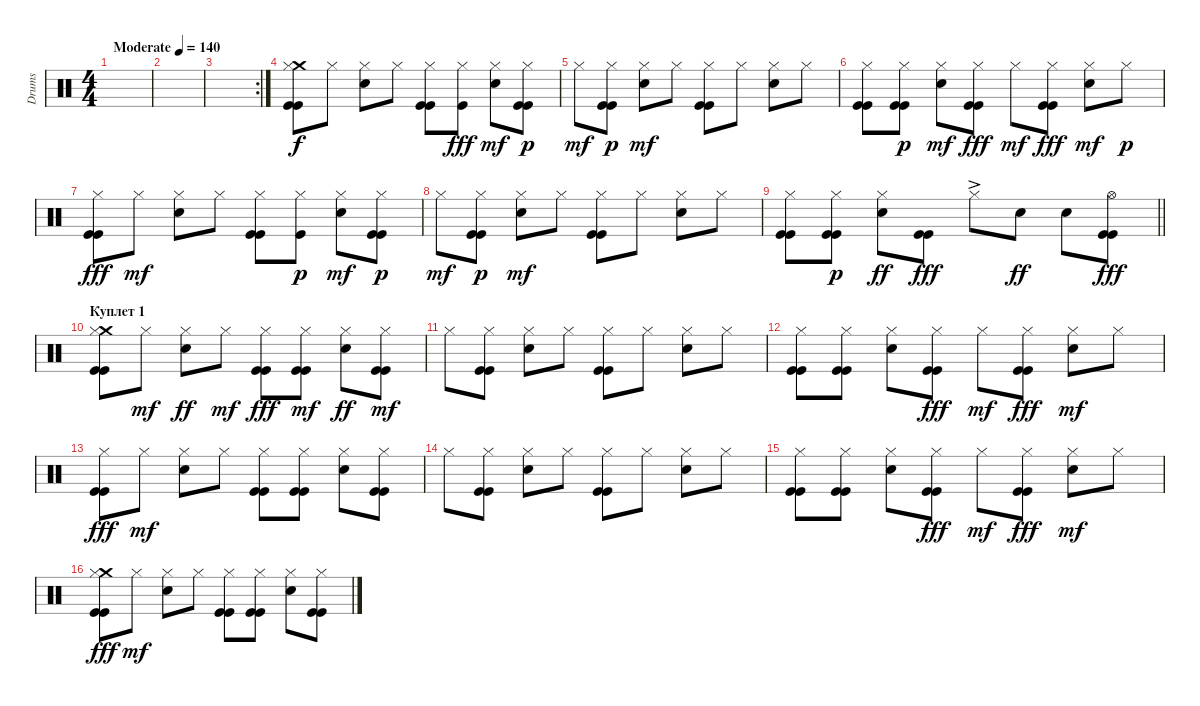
\track ("Drums" "Drums") {instrument percussion}
\staff {score}
\articulation defaults
\ts (4 4)
\tempo (140 "Moderate")
\clef neutral
\ks c
|
|
\rc 2
|
("Kick (hit)" "Crash medium (hit)" "Kick (hit)" "Hi-Hat (closed)").8 "Hi-Hat (closed)".8 ("Electric Snare (hit)" "Hi-Hat (closed)").8 "Hi-Hat (closed)".8 ("Kick (hit)" "Kick (hit)" "Hi-Hat (closed)").8 ("Hi-Hat (closed)" "Kick (hit)").8{dy fff} ("Electric Snare (hit)" "Hi-Hat (closed)").8{dy mf} ("Kick (hit)" "Kick (hit)" "Hi-Hat (closed)").8{dy p} |
"Hi-Hat (closed)".8{dy mf} ("Kick (hit)" "Kick (hit)" "Hi-Hat (closed)").8{dy p} ("Electric Snare (hit)" "Hi-Hat (closed)").8{dy mf} "Hi-Hat (closed)".8 ("Kick (hit)" "Kick (hit)" "Hi-Hat (closed)").8 "Hi-Hat (closed)".8 ("Electric Snare (hit)" "Hi-Hat (closed)").8 "Hi-Hat (closed)".8 |
("Kick (hit)" "Kick (hit)" "Hi-Hat (closed)").8 ("Kick (hit)" "Kick (hit)" "Hi-Hat (closed)").8{dy p} ("Electric Snare (hit)" "Hi-Hat (closed)").8{dy mf} ("Kick (hit)" "Hi-Hat (closed)" "Kick (hit)").8{dy fff} "Hi-Hat (closed)".8{dy mf} ("Kick (hit)" "Hi-Hat (closed)" "Kick (hit)").8{dy fff} ("Electric Snare (hit)" "Hi-Hat (closed)").8{dy mf} "Hi-Hat (closed)".8{dy p} |
("Kick (hit)" "Hi-Hat (closed)" "Kick (hit)").8{dy fff} "Hi-Hat (closed)".8{dy mf} ("Electric Snare (hit)" "Hi-Hat (closed)").8 "Hi-Hat (closed)".8 ("Kick (hit)" "Kick (hit)" "Hi-Hat (closed)").8 ("Kick (hit)" "Hi-Hat (closed)").8{dy p} ("Electric Snare (hit)" "Hi-Hat (closed)").8{dy mf} ("Kick (hit)" "Kick (hit)" "Hi-Hat (closed)").8{dy p} |
"Hi-Hat (closed)".8{dy mf} ("Kick (hit)" "Kick (hit)" "Hi-Hat (closed)").8{dy p} ("Electric Snare (hit)" "Hi-Hat (closed)").8{dy mf} "Hi-Hat (closed)".8 ("Kick (hit)" "Kick (hit)" "Hi-Hat (closed)").8 "Hi-Hat (closed)".8 ("Electric Snare (hit)" "Hi-Hat (closed)").8 "Hi-Hat (closed)".8 |
\barLineRight lightlight
("Kick (hit)" "Kick (hit)" "Hi-Hat (closed)").8 ("Kick (hit)" "Kick (hit)" "Hi-Hat (closed)").8{dy p} ("Electric Snare (hit)" "Hi-Hat (closed)").8{dy ff} ("Kick (hit)" "Kick (hit)").8{dy fff} "Hi-Hat (closed)"{ac}.8 "Electric Snare (hit)".8{dy ff} "Electric Snare (hit)".8 ("Kick (hit)" "Kick (hit)" "Hi-Hat (open)").8{dy fff} |
\section ("" "Куплет 1")
("Crash medium (hit)" "Kick (hit)" "Hi-Hat (closed)" "Kick (hit)").8 "Hi-Hat (closed)".8{dy mf} ("Electric Snare (hit)" "Hi-Hat (closed)").8{dy ff} "Hi-Hat (closed)".8{dy mf} ("Kick (hit)" "Kick (hit)" "Hi-Hat (closed)").8{dy fff} ("Kick (hit)" "Kick (hit)" "Hi-Hat (closed)").8{dy mf} ("Electric Snare (hit)" "Hi-Hat (closed)").8{dy ff} ("Kick (hit)" "Kick (hit)" "Hi-Hat (closed)").8{dy mf} |
"Hi-Hat (closed)".8 ("Kick (hit)" "Kick (hit)" "Hi-Hat (closed)").8 ("Electric Snare (hit)" "Hi-Hat (closed)").8 "Hi-Hat (closed)".8 ("Kick (hit)" "Kick (hit)" "Hi-Hat (closed)").8 "Hi-Hat (closed)".8 ("Electric Snare (hit)" "Hi-Hat (closed)").8 "Hi-Hat (closed)".8 |
("Kick (hit)" "Kick (hit)" "Hi-Hat (closed)").8 ("Kick (hit)" "Kick (hit)" "Hi-Hat (closed)").8 ("Electric Snare (hit)" "Hi-Hat (closed)").8 ("Kick (hit)" "Hi-Hat (closed)" "Kick (hit)").8{dy fff} "Hi-Hat (closed)".8{dy mf} ("Kick (hit)" "Hi-Hat (closed)" "Kick (hit)").8{dy fff} ("Electric Snare (hit)" "Hi-Hat (closed)").8{dy mf} "Hi-Hat (closed)".8 |
("Kick (hit)" "Hi-Hat (closed)" "Kick (hit)").8{dy fff} "Hi-Hat (closed)".8{dy mf} ("Electric Snare (hit)" "Hi-Hat (closed)").8 "Hi-Hat (closed)".8 ("Kick (hit)" "Kick (hit)" "Hi-Hat (closed)").8 ("Kick (hit)" "Kick (hit)" "Hi-Hat (closed)").8 ("Electric Snare (hit)" "Hi-Hat (closed)").8 ("Kick (hit)" "Kick (hit)" "Hi-Hat (closed)").8 |
"Hi-Hat (closed)".8 ("Kick (hit)" "Kick (hit)" "Hi-Hat (closed)").8 ("Electric Snare (hit)" "Hi-Hat (closed)").8 "Hi-Hat (closed)".8 ("Kick (hit)" "Kick (hit)" "Hi-Hat (closed)").8 "Hi-Hat (closed)".8 ("Electric Snare (hit)" "Hi-Hat (closed)").8 "Hi-Hat (closed)".8 |
("Kick (hit)" "Kick (hit)" "Hi-Hat (closed)").8 ("Kick (hit)" "Kick (hit)" "Hi-Hat (closed)").8 ("Electric Snare (hit)" "Hi-Hat (closed)").8 ("Kick (hit)" "Hi-Hat (closed)" "Kick (hit)").8{dy fff} "Hi-Hat (closed)".8{dy mf} ("Kick (hit)" "Hi-Hat (closed)" "Kick (hit)").8{dy fff} ("Electric Snare (hit)" "Hi-Hat (closed)").8{dy mf} "Hi-Hat (closed)".8 |
("Kick (hit)" "Crash medium (hit)" "Hi-Hat (closed)" "Kick (hit)").8{dy fff} "Hi-Hat (closed)".8{dy mf} ("Electric Snare (hit)" "Hi-Hat (closed)").8 "Hi-Hat (closed)".8 ("Kick (hit)" "Kick (hit)" "Hi-Hat (closed)").8 ("Kick (hit)" "Kick (hit)" "Hi-Hat (closed)").8 ("Electric Snare (hit)" "Hi-Hat (closed)").8 ("Kick (hit)" "Kick (hit)" "Hi-Hat (closed)").8
